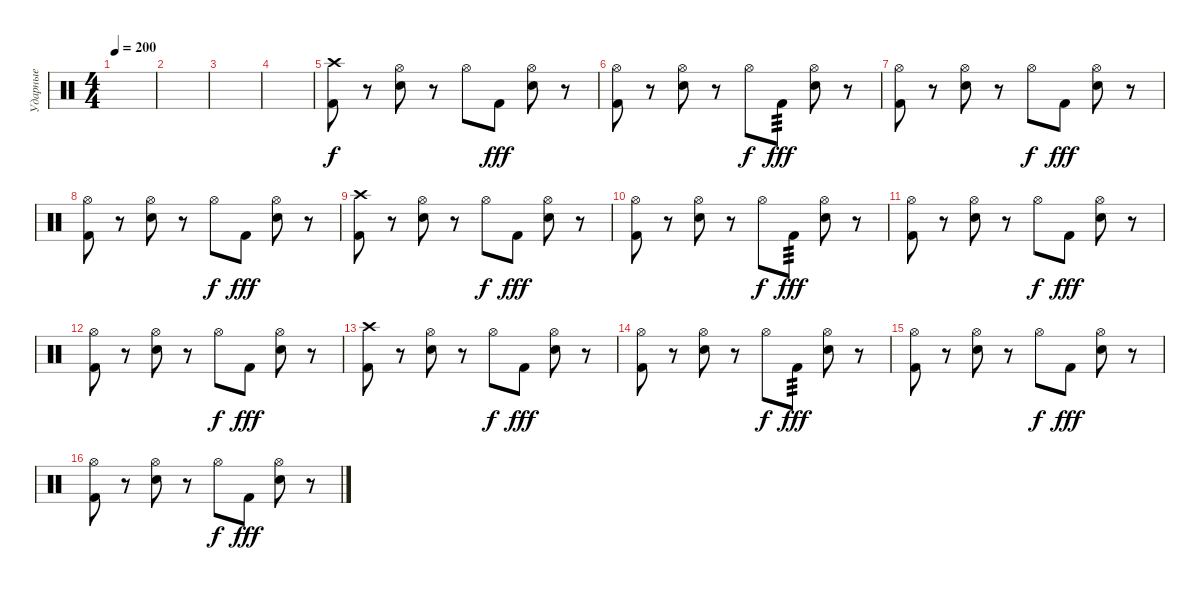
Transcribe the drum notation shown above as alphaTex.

\track ("Ударные" "Ударные") {instrument percussion}
\staff {score}
\articulation defaults
\ts (4 4)
\tempo 200
\clef neutral
\ks c
|
|
|
|
("Crash high (hit)" "Kick (hit) 2").8 r.8 ("Hi-Hat (open)" "Electric Snare (hit)").8 r.8 "Hi-Hat (open)".8{dy f} "Kick (hit) 2".8{dy fff} ("Hi-Hat (open)" "Electric Snare (hit)").8 r.8 |
("Hi-Hat (open)" "Kick (hit) 2").8 r.8 ("Hi-Hat (open)" "Electric Snare (hit)").8 r.8 "Hi-Hat (open)".8{dy f} "Kick (hit) 2".8{tp 3 dy fff} ("Hi-Hat (open)" "Electric Snare (hit)").8 r.8 |
("Hi-Hat (open)" "Kick (hit) 2").8 r.8 ("Hi-Hat (open)" "Electric Snare (hit)").8 r.8 "Hi-Hat (open)".8{dy f} "Kick (hit) 2".8{dy fff} ("Hi-Hat (open)" "Electric Snare (hit)").8 r.8 |
("Hi-Hat (open)" "Kick (hit) 2").8 r.8 ("Hi-Hat (open)" "Electric Snare (hit)").8 r.8 "Hi-Hat (open)".8{dy f} "Kick (hit) 2".8{dy fff} ("Hi-Hat (open)" "Electric Snare (hit)").8 r.8 |
("Crash high (hit)" "Kick (hit) 2").8 r.8 ("Hi-Hat (open)" "Electric Snare (hit)").8 r.8 "Hi-Hat (open)".8{dy f} "Kick (hit) 2".8{dy fff} ("Hi-Hat (open)" "Electric Snare (hit)").8 r.8 |
("Hi-Hat (open)" "Kick (hit) 2").8 r.8 ("Hi-Hat (open)" "Electric Snare (hit)").8 r.8 "Hi-Hat (open)".8{dy f} "Kick (hit) 2".8{tp 3 dy fff} ("Hi-Hat (open)" "Electric Snare (hit)").8 r.8 |
("Hi-Hat (open)" "Kick (hit) 2").8 r.8 ("Hi-Hat (open)" "Electric Snare (hit)").8 r.8 "Hi-Hat (open)".8{dy f} "Kick (hit) 2".8{dy fff} ("Hi-Hat (open)" "Electric Snare (hit)").8 r.8 |
("Hi-Hat (open)" "Kick (hit) 2").8 r.8 ("Hi-Hat (open)" "Electric Snare (hit)").8 r.8 "Hi-Hat (open)".8{dy f} "Kick (hit) 2".8{dy fff} ("Hi-Hat (open)" "Electric Snare (hit)").8 r.8 |
("Crash high (hit)" "Kick (hit) 2").8 r.8 ("Hi-Hat (open)" "Electric Snare (hit)").8 r.8 "Hi-Hat (open)".8{dy f} "Kick (hit) 2".8{dy fff} ("Hi-Hat (open)" "Electric Snare (hit)").8 r.8 |
("Hi-Hat (open)" "Kick (hit) 2").8 r.8 ("Hi-Hat (open)" "Electric Snare (hit)").8 r.8 "Hi-Hat (open)".8{dy f} "Kick (hit) 2".8{tp 3 dy fff} ("Hi-Hat (open)" "Electric Snare (hit)").8 r.8 |
("Hi-Hat (open)" "Kick (hit) 2").8 r.8 ("Hi-Hat (open)" "Electric Snare (hit)").8 r.8 "Hi-Hat (open)".8{dy f} "Kick (hit) 2".8{dy fff} ("Hi-Hat (open)" "Electric Snare (hit)").8 r.8 |
("Hi-Hat (open)" "Kick (hit) 2").8 r.8 ("Hi-Hat (open)" "Electric Snare (hit)").8 r.8 "Hi-Hat (open)".8{dy f} "Kick (hit) 2".8{dy fff} ("Hi-Hat (open)" "Electric Snare (hit)").8 r.8
